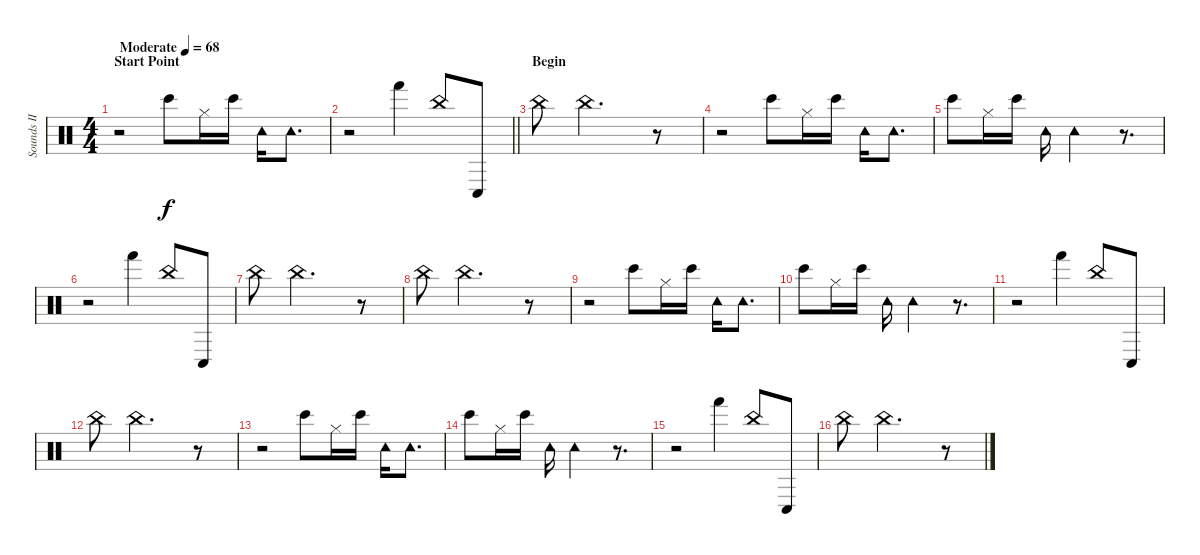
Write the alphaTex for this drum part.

\track ("Sounds II (Generic)" "Sounds II ") {instrument percussion}
\staff {score}
\articulation defaults
\ts (4 4)
\section ("" "Start Point")
\tempo (68 "Moderate")
\clef neutral
\ks c
r.2{dy f} "Bongo High (hit)".8 "Hi-Hat (closed)".16 "Bongo High (hit)".16 "Tambourine (hit)".16 "Tambourine (hit)".8{d} |
\barLineRight lightlight
r.2 "Hand (hit)".4 "China (hit)".8 "Conga low (hit)".8 |
\section ("" "Begin")
"China (hit)".8 "China (hit)".2{d} r.8 |
r.2 "Bongo High (hit)".8 "Hi-Hat (closed)".16 "Bongo High (hit)".16 "Tambourine (hit)".16 "Tambourine (hit)".8{d} |
"Bongo High (hit)".8 "Hi-Hat (closed)".16 "Bongo High (hit)".16 "Tambourine (hit)".16 "Tambourine (hit)".2 r.8{d} |
r.2 "Hand (hit)".4 "China (hit)".8 "Conga low (hit)".8 |
"China (hit)".8 "China (hit)".2{d} r.8 |
"China (hit)".8 "China (hit)".2{d} r.8 |
r.2 "Bongo High (hit)".8 "Hi-Hat (closed)".16 "Bongo High (hit)".16 "Tambourine (hit)".16 "Tambourine (hit)".8{d} |
"Bongo High (hit)".8 "Hi-Hat (closed)".16 "Bongo High (hit)".16 "Tambourine (hit)".16 "Tambourine (hit)".2 r.8{d} |
r.2 "Hand (hit)".4 "China (hit)".8 "Conga low (hit)".8 |
"China (hit)".8 "China (hit)".2{d} r.8 |
r.2 "Bongo High (hit)".8 "Hi-Hat (closed)".16 "Bongo High (hit)".16 "Tambourine (hit)".16 "Tambourine (hit)".8{d} |
"Bongo High (hit)".8 "Hi-Hat (closed)".16 "Bongo High (hit)".16 "Tambourine (hit)".16 "Tambourine (hit)".2 r.8{d} |
r.2 "Hand (hit)".4 "China (hit)".8 "Conga low (hit)".8 |
"China (hit)".8 "China (hit)".2{d} r.8
